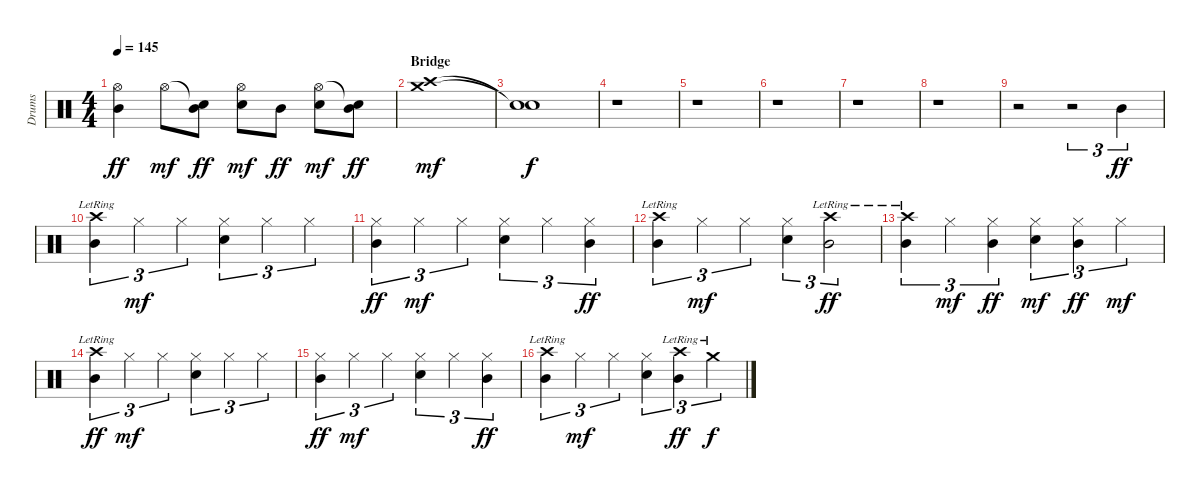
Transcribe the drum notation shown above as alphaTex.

\track ("Drums" "Drums") {instrument percussion}
\staff {score}
\articulation defaults
\ts (4 4)
\tempo 145
\clef neutral
\ks c
("Hi-Hat (open)" "Mid Tom (hit)").4{dy ff} "Hi-Hat (open)".8{dy mf} ("Snare (hit)"{t} "Mid Tom (hit)").8{dy ff} ("Hi-Hat (open)" "Electric Snare (hit)").8{dy mf} "Mid Tom (hit)".8{dy ff} ("Hi-Hat (open)" "Electric Snare (hit)").8{dy mf} ("Snare (hit)"{t} "Mid Tom (hit)").8{dy ff} |
\section ("" "Bridge")
("Crash high (hit)" "Crash medium (hit)").1{dy mf} |
("Snare (hit)"{t} "Snare (hit)"{t}).1{dy f} |
r.1 |
r.1 |
r.1 |
r.1 |
r.1 |
r.2 r.2{tu (3 2)} "Mid Tom (hit)".4{tu (3 2) dy ff} |
("Crash high (hit)"{lr} "Mid Tom (hit)").4{tu (3 2)} "Hi-Hat (closed)".4{tu (3 2) dy mf} "Hi-Hat (closed)".4{tu (3 2)} ("Hi-Hat (closed)" "Electric Snare (hit)").4{tu (3 2)} "Hi-Hat (closed)".4{tu (3 2)} "Hi-Hat (closed)".4{tu (3 2)} |
("Hi-Hat (closed)" "Mid Tom (hit)").4{tu (3 2) dy ff} "Hi-Hat (closed)".4{tu (3 2) dy mf} "Hi-Hat (closed)".4{tu (3 2)} ("Hi-Hat (closed)" "Electric Snare (hit)").4{tu (3 2)} "Hi-Hat (closed)".4{tu (3 2)} ("Hi-Hat (closed)" "Mid Tom (hit)").4{tu (3 2) dy ff} |
("Crash high (hit)"{lr} "Mid Tom (hit)").4{tu (3 2)} "Hi-Hat (closed)".4{tu (3 2) dy mf} "Hi-Hat (closed)".4{tu (3 2)} ("Hi-Hat (closed)" "Electric Snare (hit)").4{tu (3 2)} ("Crash high (hit)"{lr} "Mid Tom (hit)").2{tu (3 2) dy ff} |
("Crash high (hit)"{lr} "Mid Tom (hit)").4{tu (3 2)} "Hi-Hat (closed)".4{tu (3 2) dy mf} ("Hi-Hat (closed)" "Mid Tom (hit)").4{tu (3 2) dy ff} ("Hi-Hat (closed)" "Electric Snare (hit)").4{tu (3 2) dy mf} ("Hi-Hat (closed)" "Mid Tom (hit)").4{tu (3 2) dy ff} "Hi-Hat (closed)".4{tu (3 2) dy mf} |
("Crash high (hit)"{lr} "Mid Tom (hit)").4{tu (3 2) dy ff} "Hi-Hat (closed)".4{tu (3 2) dy mf} "Hi-Hat (closed)".4{tu (3 2)} ("Hi-Hat (closed)" "Electric Snare (hit)").4{tu (3 2)} "Hi-Hat (closed)".4{tu (3 2)} "Hi-Hat (closed)".4{tu (3 2)} |
("Hi-Hat (closed)" "Mid Tom (hit)").4{tu (3 2) dy ff} "Hi-Hat (closed)".4{tu (3 2) dy mf} "Hi-Hat (closed)".4{tu (3 2)} ("Hi-Hat (closed)" "Electric Snare (hit)").4{tu (3 2)} "Hi-Hat (closed)".4{tu (3 2)} ("Hi-Hat (closed)" "Mid Tom (hit)").4{tu (3 2) dy ff} |
("Crash high (hit)"{lr} "Mid Tom (hit)").4{tu (3 2)} "Hi-Hat (closed)".4{tu (3 2) dy mf} "Hi-Hat (closed)".4{tu (3 2)} ("Hi-Hat (closed)" "Electric Snare (hit)").4{tu (3 2)} ("Crash high (hit)"{lr} "Mid Tom (hit)").4{tu (3 2) dy ff} "Crash medium (hit)"{lr}.4{tu (3 2) dy f}
